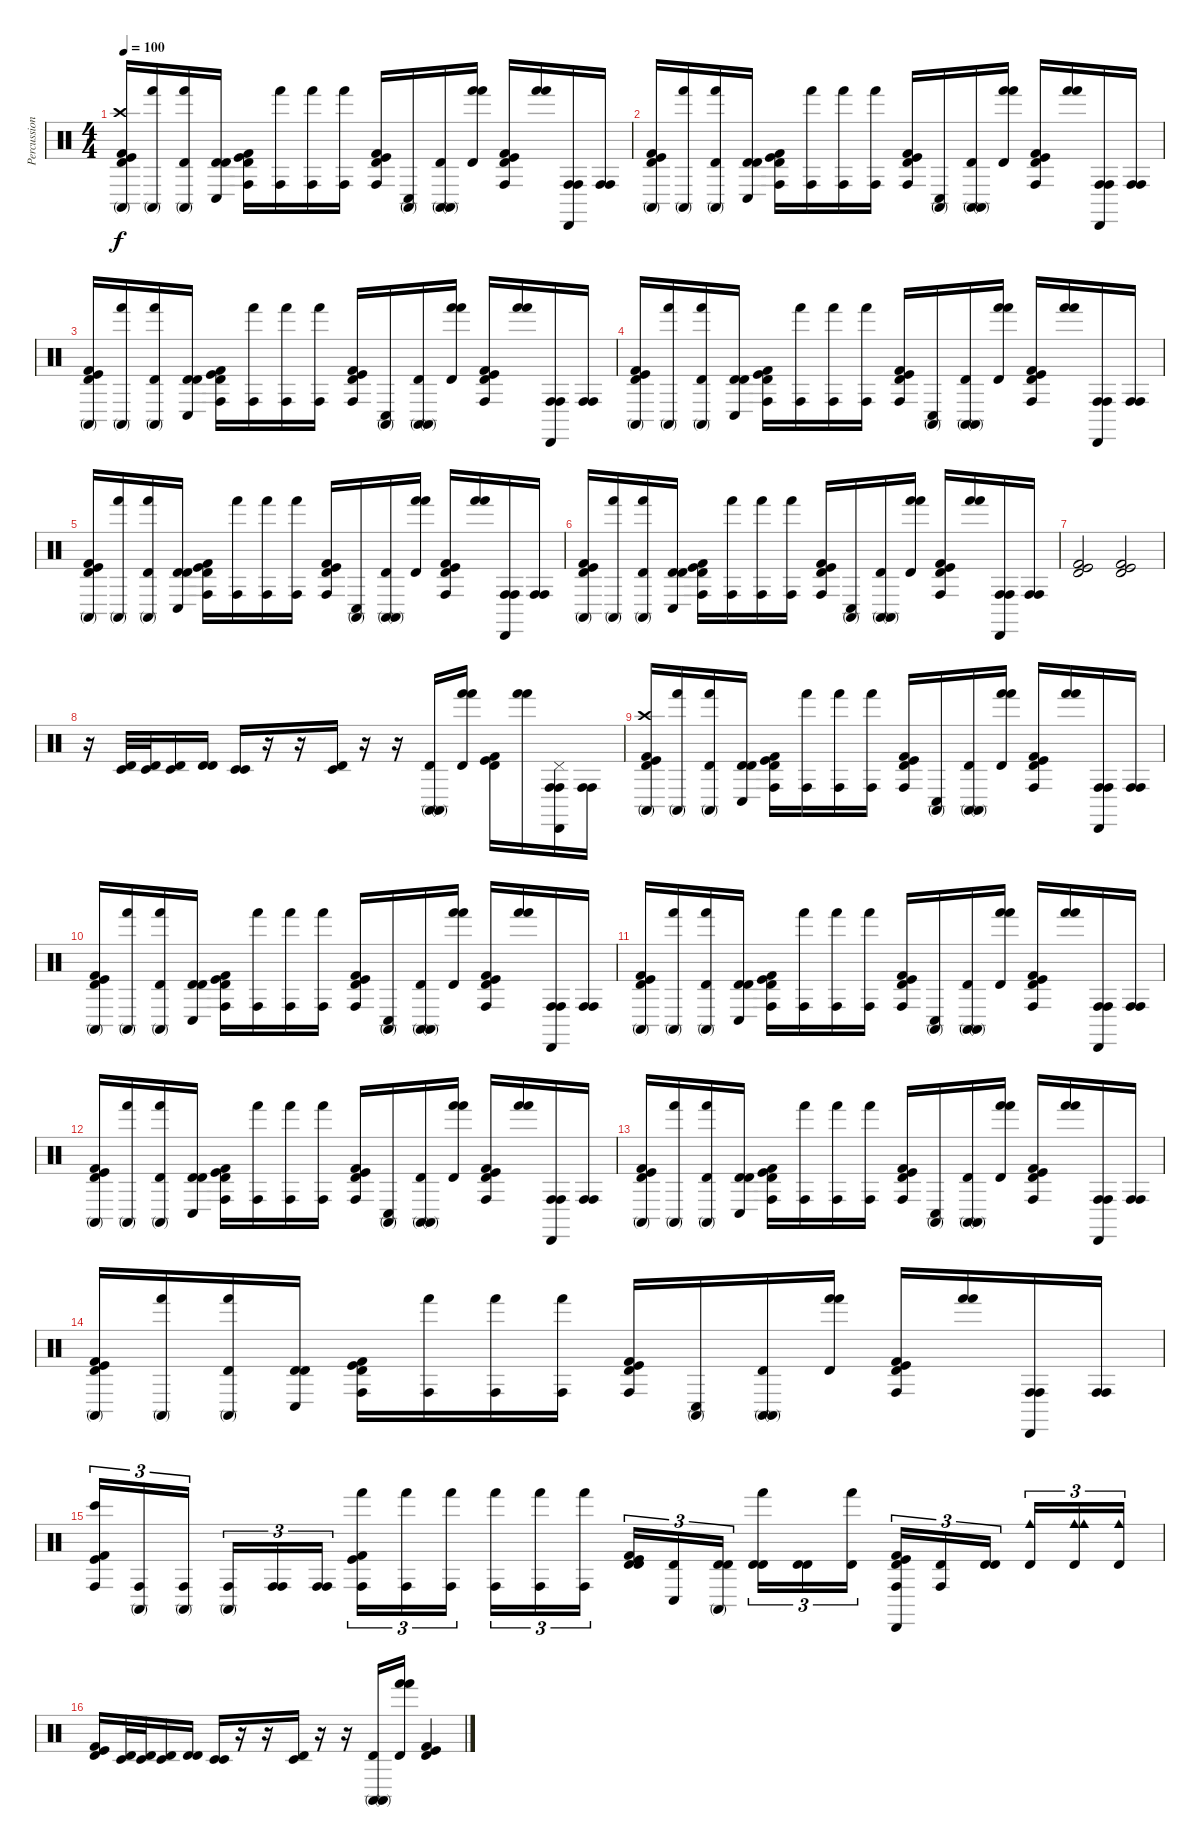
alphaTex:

\track ("Percussion" "Percussion") {instrument percussion}
\staff {score}
\articulation defaults
\ts (4 4)
\tempo 100
\clef neutral
\ks c
("Conga high (mute)" "Timbale high (hit)" "Crash high (hit)" "Kick (hit) 2" "Kick (hit)").16{dy f} ("Conga high (mute)" "Hand (hit)").16 ("Conga high (mute)" "Hand (hit)" "Timbale high (hit)").16 ("Conga low (hit)" "Timbale high (hit)" "Timbale high (hit)").16 ("Conga high (hit)" "Timbale high (hit)" "Kick (hit) 2" "Kick (hit)").16 ("Conga high (hit)" "Hand (hit)").16 ("Conga high (hit)" "Hand (hit)").16 ("Conga high (hit)" "Hand (hit)").16 ("Conga high (hit)" "Timbale high (hit)" "Kick (hit) 2" "Kick (hit)").16 ("Conga high (mute)" "Conga low (hit)").16 ("Conga high (mute)" "Conga high (mute)" "Timbale high (hit)").16 ("Hand (hit)" "Hand (hit)" "Timbale high (hit)").16 ("Conga high (hit)" "Timbale high (hit)" "Kick (hit) 2" "Kick (hit)").16 ("Hand (hit)" "Hand (hit)").16 ("Conga high (hit)" "Conga high (hit)" "Cabasa (hit)").16 ("Conga high (hit)" "Conga high (hit)").16 |
("Conga high (mute)" "Timbale high (hit)" "Kick (hit) 2" "Kick (hit)").16 ("Conga high (mute)" "Hand (hit)").16 ("Conga high (mute)" "Hand (hit)" "Timbale high (hit)").16 ("Conga low (hit)" "Timbale high (hit)" "Timbale high (hit)").16 ("Conga high (hit)" "Timbale high (hit)" "Kick (hit) 2" "Kick (hit)").16 ("Conga high (hit)" "Hand (hit)").16 ("Conga high (hit)" "Hand (hit)").16 ("Conga high (hit)" "Hand (hit)").16 ("Conga high (hit)" "Timbale high (hit)" "Kick (hit) 2" "Kick (hit)").16 ("Conga high (mute)" "Conga low (hit)").16 ("Conga high (mute)" "Conga high (mute)" "Timbale high (hit)").16 ("Hand (hit)" "Hand (hit)" "Timbale high (hit)").16 ("Conga high (hit)" "Timbale high (hit)" "Kick (hit) 2" "Kick (hit)").16 ("Hand (hit)" "Hand (hit)").16 ("Conga high (hit)" "Conga high (hit)" "Cabasa (hit)").16 ("Conga high (hit)" "Conga high (hit)").16 |
("Conga high (mute)" "Timbale high (hit)" "Kick (hit) 2" "Kick (hit)").16 ("Conga high (mute)" "Hand (hit)").16 ("Conga high (mute)" "Hand (hit)" "Timbale high (hit)").16 ("Conga low (hit)" "Timbale high (hit)" "Timbale high (hit)").16 ("Conga high (hit)" "Timbale high (hit)" "Kick (hit) 2" "Kick (hit)").16 ("Conga high (hit)" "Hand (hit)").16 ("Conga high (hit)" "Hand (hit)").16 ("Conga high (hit)" "Hand (hit)").16 ("Conga high (hit)" "Timbale high (hit)" "Kick (hit) 2" "Kick (hit)").16 ("Conga high (mute)" "Conga low (hit)").16 ("Conga high (mute)" "Conga high (mute)" "Timbale high (hit)").16 ("Hand (hit)" "Hand (hit)" "Timbale high (hit)").16 ("Conga high (hit)" "Timbale high (hit)" "Kick (hit) 2" "Kick (hit)").16 ("Hand (hit)" "Hand (hit)").16 ("Conga high (hit)" "Conga high (hit)" "Cabasa (hit)").16 ("Conga high (hit)" "Conga high (hit)").16 |
("Conga high (mute)" "Timbale high (hit)" "Kick (hit) 2" "Kick (hit)").16 ("Conga high (mute)" "Hand (hit)").16 ("Conga high (mute)" "Hand (hit)" "Timbale high (hit)").16 ("Conga low (hit)" "Timbale high (hit)" "Timbale high (hit)").16 ("Conga high (hit)" "Timbale high (hit)" "Kick (hit) 2" "Kick (hit)").16 ("Conga high (hit)" "Hand (hit)").16 ("Conga high (hit)" "Hand (hit)").16 ("Conga high (hit)" "Hand (hit)").16 ("Conga high (hit)" "Timbale high (hit)" "Kick (hit) 2" "Kick (hit)").16 ("Conga high (mute)" "Conga low (hit)").16 ("Conga high (mute)" "Conga high (mute)" "Timbale high (hit)").16 ("Hand (hit)" "Hand (hit)" "Timbale high (hit)").16 ("Conga high (hit)" "Timbale high (hit)" "Kick (hit) 2" "Kick (hit)").16 ("Hand (hit)" "Hand (hit)").16 ("Conga high (hit)" "Conga high (hit)" "Cabasa (hit)").16 ("Conga high (hit)" "Conga high (hit)").16 |
("Conga high (mute)" "Timbale high (hit)" "Kick (hit) 2" "Kick (hit)").16 ("Conga high (mute)" "Hand (hit)").16 ("Conga high (mute)" "Hand (hit)" "Timbale high (hit)").16 ("Conga low (hit)" "Timbale high (hit)" "Timbale high (hit)").16 ("Conga high (hit)" "Timbale high (hit)" "Kick (hit) 2" "Kick (hit)").16 ("Conga high (hit)" "Hand (hit)").16 ("Conga high (hit)" "Hand (hit)").16 ("Conga high (hit)" "Hand (hit)").16 ("Conga high (hit)" "Timbale high (hit)" "Kick (hit) 2" "Kick (hit)").16 ("Conga high (mute)" "Conga low (hit)").16 ("Conga high (mute)" "Conga high (mute)" "Timbale high (hit)").16 ("Hand (hit)" "Hand (hit)" "Timbale high (hit)").16 ("Conga high (hit)" "Timbale high (hit)" "Kick (hit) 2" "Kick (hit)").16 ("Hand (hit)" "Hand (hit)").16 ("Conga high (hit)" "Conga high (hit)" "Cabasa (hit)").16 ("Conga high (hit)" "Conga high (hit)").16 |
("Conga high (mute)" "Timbale high (hit)" "Kick (hit) 2" "Kick (hit)").16 ("Conga high (mute)" "Hand (hit)").16 ("Conga high (mute)" "Hand (hit)" "Timbale high (hit)").16 ("Conga low (hit)" "Timbale high (hit)" "Timbale high (hit)").16 ("Conga high (hit)" "Timbale high (hit)" "Kick (hit) 2" "Kick (hit)").16 ("Conga high (hit)" "Hand (hit)").16 ("Conga high (hit)" "Hand (hit)").16 ("Conga high (hit)" "Hand (hit)").16 ("Conga high (hit)" "Timbale high (hit)" "Kick (hit) 2" "Kick (hit)").16 ("Conga high (mute)" "Conga low (hit)").16 ("Conga high (mute)" "Conga high (mute)" "Timbale high (hit)").16 ("Hand (hit)" "Hand (hit)" "Timbale high (hit)").16 ("Conga high (hit)" "Timbale high (hit)" "Kick (hit) 2" "Kick (hit)").16 ("Hand (hit)" "Hand (hit)").16 ("Conga high (hit)" "Conga high (hit)" "Cabasa (hit)").16 ("Conga high (hit)" "Conga high (hit)").16 |
("Timbale high (hit)" "Kick (hit) 2" "Kick (hit)").2 ("Timbale high (hit)" "Kick (hit) 2" "Kick (hit)").2 |
r.16 ("Timbale high (hit)" "Timbale low (hit)").32 ("Timbale high (hit)" "Timbale low (hit)").32 ("Timbale high (hit)" "Timbale low (hit)").16 ("Timbale high (hit)" "Timbale high (hit)").16 ("Timbale low (hit)" "Timbale low (hit)").16 r.16 r.16 ("Timbale high (hit)" "Timbale low (hit)").16 r.16 r.16 ("Conga high (mute)" "Conga high (mute)" "Timbale high (hit)").16 ("Hand (hit)" "Hand (hit)" "Timbale high (hit)").16 ("Timbale high (hit)" "Kick (hit) 2" "Kick (hit)").16 ("Hand (hit)" "Hand (hit)").16 ("Conga high (hit)" "Conga high (hit)" "Cabasa (hit)" "Pedal Hi-Hat (hit)").16 ("Conga high (hit)" "Conga high (hit)").16 |
("Conga high (mute)" "Timbale high (hit)" "Crash high (hit)" "Kick (hit) 2" "Kick (hit)").16 ("Conga high (mute)" "Hand (hit)").16 ("Conga high (mute)" "Hand (hit)" "Timbale high (hit)").16 ("Conga low (hit)" "Timbale high (hit)" "Timbale high (hit)").16 ("Conga high (hit)" "Timbale high (hit)" "Kick (hit) 2" "Kick (hit)").16 ("Conga high (hit)" "Hand (hit)").16 ("Conga high (hit)" "Hand (hit)").16 ("Conga high (hit)" "Hand (hit)").16 ("Conga high (hit)" "Timbale high (hit)" "Kick (hit) 2" "Kick (hit)").16 ("Conga high (mute)" "Conga low (hit)").16 ("Conga high (mute)" "Conga high (mute)" "Timbale high (hit)").16 ("Hand (hit)" "Hand (hit)" "Timbale high (hit)").16 ("Conga high (hit)" "Timbale high (hit)" "Kick (hit) 2" "Kick (hit)").16 ("Hand (hit)" "Hand (hit)").16 ("Conga high (hit)" "Conga high (hit)" "Cabasa (hit)").16 ("Conga high (hit)" "Conga high (hit)").16 |
("Conga high (mute)" "Timbale high (hit)" "Kick (hit) 2" "Kick (hit)").16 ("Conga high (mute)" "Hand (hit)").16 ("Conga high (mute)" "Hand (hit)" "Timbale high (hit)").16 ("Conga low (hit)" "Timbale high (hit)" "Timbale high (hit)").16 ("Conga high (hit)" "Timbale high (hit)" "Kick (hit) 2" "Kick (hit)").16 ("Conga high (hit)" "Hand (hit)").16 ("Conga high (hit)" "Hand (hit)").16 ("Conga high (hit)" "Hand (hit)").16 ("Conga high (hit)" "Timbale high (hit)" "Kick (hit) 2" "Kick (hit)").16 ("Conga high (mute)" "Conga low (hit)").16 ("Conga high (mute)" "Conga high (mute)" "Timbale high (hit)").16 ("Hand (hit)" "Hand (hit)" "Timbale high (hit)").16 ("Conga high (hit)" "Timbale high (hit)" "Kick (hit) 2" "Kick (hit)").16 ("Hand (hit)" "Hand (hit)").16 ("Conga high (hit)" "Conga high (hit)" "Cabasa (hit)").16 ("Conga high (hit)" "Conga high (hit)").16 |
("Conga high (mute)" "Timbale high (hit)" "Kick (hit) 2" "Kick (hit)").16 ("Conga high (mute)" "Hand (hit)").16 ("Conga high (mute)" "Hand (hit)" "Timbale high (hit)").16 ("Conga low (hit)" "Timbale high (hit)" "Timbale high (hit)").16 ("Conga high (hit)" "Timbale high (hit)" "Kick (hit) 2" "Kick (hit)").16 ("Conga high (hit)" "Hand (hit)").16 ("Conga high (hit)" "Hand (hit)").16 ("Conga high (hit)" "Hand (hit)").16 ("Conga high (hit)" "Timbale high (hit)" "Kick (hit) 2" "Kick (hit)").16 ("Conga high (mute)" "Conga low (hit)").16 ("Conga high (mute)" "Conga high (mute)" "Timbale high (hit)").16 ("Hand (hit)" "Hand (hit)" "Timbale high (hit)").16 ("Conga high (hit)" "Timbale high (hit)" "Kick (hit) 2" "Kick (hit)").16 ("Hand (hit)" "Hand (hit)").16 ("Conga high (hit)" "Conga high (hit)" "Cabasa (hit)").16 ("Conga high (hit)" "Conga high (hit)").16 |
("Conga high (mute)" "Timbale high (hit)" "Kick (hit) 2" "Kick (hit)").16 ("Conga high (mute)" "Hand (hit)").16 ("Conga high (mute)" "Hand (hit)" "Timbale high (hit)").16 ("Conga low (hit)" "Timbale high (hit)" "Timbale high (hit)").16 ("Conga high (hit)" "Timbale high (hit)" "Kick (hit) 2" "Kick (hit)").16 ("Conga high (hit)" "Hand (hit)").16 ("Conga high (hit)" "Hand (hit)").16 ("Conga high (hit)" "Hand (hit)").16 ("Conga high (hit)" "Timbale high (hit)" "Kick (hit) 2" "Kick (hit)").16 ("Conga high (mute)" "Conga low (hit)").16 ("Conga high (mute)" "Conga high (mute)" "Timbale high (hit)").16 ("Hand (hit)" "Hand (hit)" "Timbale high (hit)").16 ("Conga high (hit)" "Timbale high (hit)" "Kick (hit) 2" "Kick (hit)").16 ("Hand (hit)" "Hand (hit)").16 ("Conga high (hit)" "Conga high (hit)" "Cabasa (hit)").16 ("Conga high (hit)" "Conga high (hit)").16 |
("Conga high (mute)" "Timbale high (hit)" "Kick (hit) 2" "Kick (hit)").16 ("Conga high (mute)" "Hand (hit)").16 ("Conga high (mute)" "Hand (hit)" "Timbale high (hit)").16 ("Conga low (hit)" "Timbale high (hit)" "Timbale high (hit)").16 ("Conga high (hit)" "Timbale high (hit)" "Kick (hit) 2" "Kick (hit)").16 ("Conga high (hit)" "Hand (hit)").16 ("Conga high (hit)" "Hand (hit)").16 ("Conga high (hit)" "Hand (hit)").16 ("Conga high (hit)" "Timbale high (hit)" "Kick (hit) 2" "Kick (hit)").16 ("Conga high (mute)" "Conga low (hit)").16 ("Conga high (mute)" "Conga high (mute)" "Timbale high (hit)").16 ("Hand (hit)" "Hand (hit)" "Timbale high (hit)").16 ("Conga high (hit)" "Timbale high (hit)" "Kick (hit) 2" "Kick (hit)").16 ("Hand (hit)" "Hand (hit)").16 ("Conga high (hit)" "Conga high (hit)" "Cabasa (hit)").16 ("Conga high (hit)" "Conga high (hit)").16 |
("Conga high (mute)" "Timbale high (hit)" "Kick (hit) 2" "Kick (hit)").16 ("Conga high (mute)" "Hand (hit)").16 ("Conga high (mute)" "Hand (hit)" "Timbale high (hit)").16 ("Conga low (hit)" "Timbale high (hit)" "Timbale high (hit)").16 ("Conga high (hit)" "Timbale high (hit)" "Kick (hit) 2" "Kick (hit)").16 ("Conga high (hit)" "Hand (hit)").16 ("Conga high (hit)" "Hand (hit)").16 ("Conga high (hit)" "Hand (hit)").16 ("Conga high (hit)" "Timbale high (hit)" "Kick (hit) 2" "Kick (hit)").16 ("Conga high (mute)" "Conga low (hit)").16 ("Conga high (mute)" "Conga high (mute)" "Timbale high (hit)").16 ("Hand (hit)" "Hand (hit)" "Timbale high (hit)").16 ("Conga high (hit)" "Timbale high (hit)" "Kick (hit) 2" "Kick (hit)").16 ("Hand (hit)" "Hand (hit)").16 ("Conga high (hit)" "Conga high (hit)" "Cabasa (hit)").16 ("Conga high (hit)" "Conga high (hit)").16 |
("Bongo High (hit)" "Conga high (hit)" "Kick (hit) 2" "Kick (hit)").16{tu (3 2)} ("Conga high (mute)" "Conga high (hit)").16{tu (3 2)} ("Conga high (mute)" "Conga high (hit)").16{tu (3 2)} ("Conga high (mute)" "Conga high (hit)").16{tu (3 2)} ("Conga high (hit)" "Conga high (hit)").16{tu (3 2)} ("Conga high (hit)" "Conga high (hit)").16{tu (3 2)} ("Conga high (hit)" "Hand (hit)" "Kick (hit) 2" "Kick (hit)").16{tu (3 2)} ("Conga high (hit)" "Hand (hit)").16{tu (3 2)} ("Conga high (hit)" "Hand (hit)").16{tu (3 2)} ("Conga high (hit)" "Hand (hit)").16{tu (3 2)} ("Conga high (hit)" "Hand (hit)").16{tu (3 2)} ("Conga high (hit)" "Hand (hit)").16{tu (3 2)} ("Timbale high (hit)" "Timbale high (hit)" "Kick (hit) 2" "Kick (hit)").16{tu (3 2)} ("Timbale high (hit)" "Conga low (hit)").16{tu (3 2)} ("Timbale high (hit)" "Conga high (mute)" "Timbale high (hit)").16{tu (3 2)} ("Timbale high (hit)" "Hand (hit)" "Timbale high (hit)").16{tu (3 2)} ("Timbale high (hit)" "Timbale high (hit)").16{tu (3 2)} ("Timbale high (hit)" "Hand (hit)").16{tu (3 2)} ("Timbale high (hit)" "Conga high (hit)" "Cabasa (hit)" "Kick (hit) 2" "Kick (hit)").16{tu (3 2)} ("Timbale high (hit)" "Conga high (hit)").16{tu (3 2)} ("Timbale high (hit)" "Timbale high (hit)").16{tu (3 2)} ("Cowbell medium (hit)" "Timbale high (hit)").16{tu (3 2)} ("Timbale high (hit)" "Cowbell medium (hit)" "Cowbell medium (hit)").16{tu (3 2)} ("Cowbell medium (hit)" "Timbale high (hit)").16{tu (3 2)} |
("Timbale high (hit)" "Kick (hit) 2" "Kick (hit)").16 ("Timbale high (hit)" "Timbale low (hit)").32 ("Timbale high (hit)" "Timbale low (hit)").32 ("Timbale high (hit)" "Timbale low (hit)").16 ("Timbale high (hit)" "Timbale high (hit)").16 ("Timbale low (hit)" "Timbale low (hit)").16 r.16 r.16 ("Timbale high (hit)" "Timbale low (hit)").16 r.16 r.16 ("Conga high (mute)" "Conga high (mute)" "Timbale high (hit)").16 ("Hand (hit)" "Hand (hit)" "Timbale high (hit)").16 ("Timbale high (hit)" "Kick (hit) 2" "Kick (hit)").4
